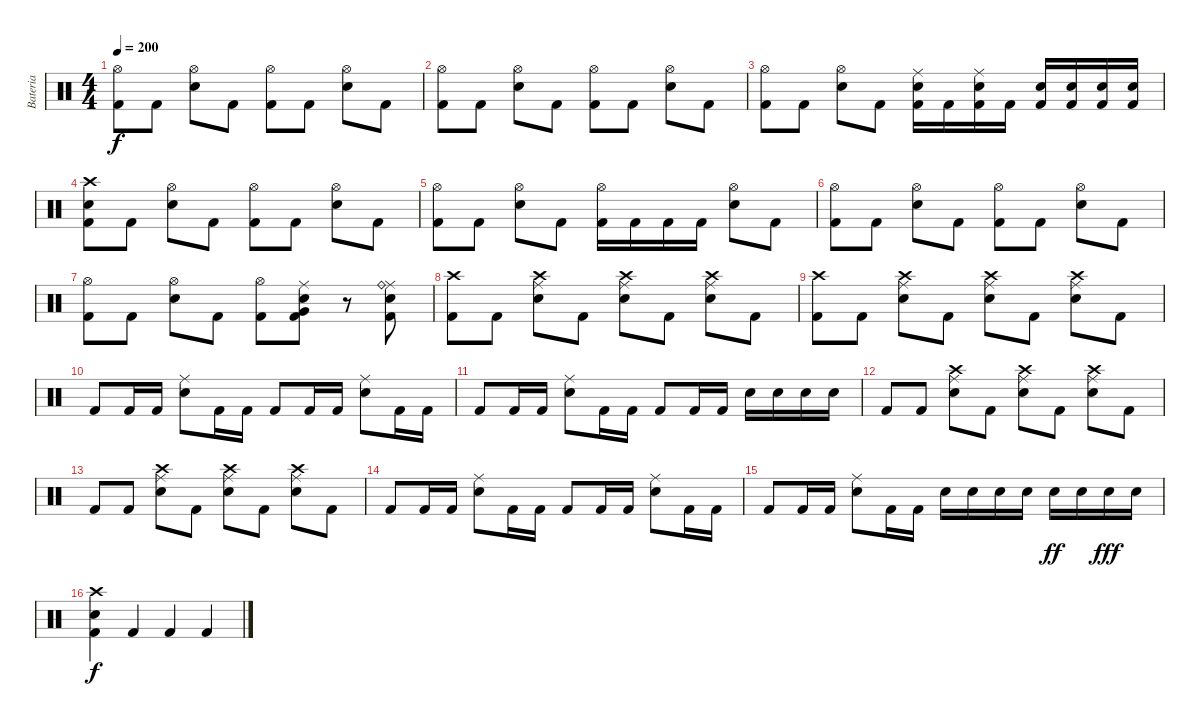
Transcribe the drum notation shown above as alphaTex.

\track ("Bateria" "Bateria") {instrument percussion}
\staff {score}
\articulation defaults
\ts (4 4)
\tempo 200
\clef neutral
\ks c
("Kick (hit) 2" "Hi-Hat (open)").8{dy f} "Kick (hit) 2".8 ("Electric Snare (hit)" "Hi-Hat (open)").8 "Kick (hit) 2".8 ("Kick (hit) 2" "Hi-Hat (open)").8 "Kick (hit) 2".8 ("Electric Snare (hit)" "Hi-Hat (open)").8 "Kick (hit) 2".8 |
("Kick (hit) 2" "Hi-Hat (open)").8 "Kick (hit) 2".8 ("Electric Snare (hit)" "Hi-Hat (open)").8 "Kick (hit) 2".8 ("Kick (hit) 2" "Hi-Hat (open)").8 "Kick (hit) 2".8 ("Electric Snare (hit)" "Hi-Hat (open)").8 "Kick (hit) 2".8 |
("Kick (hit) 2" "Hi-Hat (open)").8 "Kick (hit) 2".8 ("Electric Snare (hit)" "Hi-Hat (open)").8 "Kick (hit) 2".8 ("Kick (hit) 2" "Electric Snare (hit)" "Ride (middle)").16 "Kick (hit) 2".16 ("Kick (hit) 2" "Electric Snare (hit)" "Ride (middle)").16 "Kick (hit) 2".16 ("Kick (hit) 2" "Electric Snare (hit)").16 ("Kick (hit) 2" "Electric Snare (hit)").16 ("Kick (hit) 2" "Electric Snare (hit)").16 ("Kick (hit) 2" "Electric Snare (hit)").16 |
("Kick (hit) 2" "Electric Snare (hit)" "Crash high (hit)").8 "Kick (hit) 2".8 ("Electric Snare (hit)" "Hi-Hat (open)").8 "Kick (hit) 2".8 ("Kick (hit) 2" "Hi-Hat (open)").8 "Kick (hit) 2".8 ("Electric Snare (hit)" "Hi-Hat (open)").8 "Kick (hit) 2".8 |
("Kick (hit) 2" "Hi-Hat (open)").8 "Kick (hit) 2".8 ("Electric Snare (hit)" "Hi-Hat (open)").8 "Kick (hit) 2".8 ("Kick (hit) 2" "Hi-Hat (open)").16 "Kick (hit) 2".16 "Kick (hit) 2".16 "Kick (hit) 2".16 ("Electric Snare (hit)" "Hi-Hat (open)").8 "Kick (hit) 2".8 |
("Kick (hit) 2" "Hi-Hat (open)").8 "Kick (hit) 2".8 ("Electric Snare (hit)" "Hi-Hat (open)").8 "Kick (hit) 2".8 ("Kick (hit) 2" "Hi-Hat (open)").8 "Kick (hit) 2".8 ("Electric Snare (hit)" "Hi-Hat (open)").8 "Kick (hit) 2".8 |
("Kick (hit) 2" "Hi-Hat (open)").8 "Kick (hit) 2".8 ("Electric Snare (hit)" "Hi-Hat (open)").8 "Kick (hit) 2".8 ("Kick (hit) 2" "Hi-Hat (open)").8 ("Kick (hit) 2" "Electric Snare (hit)" "Ride (middle)" "Very Low Tom (hit)").8 r.8 ("Kick (hit) 2" "Electric Snare (hit)" "Ride (middle)" "Ride (bell)").8 |
("Kick (hit) 2" "Crash high (hit)").8 "Kick (hit) 2".8 ("Crash high (hit)" "Electric Snare (hit)" "Ride (middle)").8 "Kick (hit) 2".8 ("Crash high (hit)" "Electric Snare (hit)" "Ride (middle)").8 "Kick (hit) 2".8 ("Crash high (hit)" "Electric Snare (hit)" "Ride (middle)").8 "Kick (hit) 2".8 |
("Kick (hit) 2" "Crash high (hit)").8 "Kick (hit) 2".8 ("Crash high (hit)" "Electric Snare (hit)" "Ride (middle)").8 "Kick (hit) 2".8 ("Crash high (hit)" "Electric Snare (hit)" "Ride (middle)").8 "Kick (hit) 2".8 ("Crash high (hit)" "Electric Snare (hit)" "Ride (middle)").8 "Kick (hit) 2".8 |
"Kick (hit) 2".8 "Kick (hit) 2".16 "Kick (hit) 2".16 ("Electric Snare (hit)" "Ride (middle)").8 "Kick (hit) 2".16 "Kick (hit) 2".16 "Kick (hit) 2".8 "Kick (hit) 2".16 "Kick (hit) 2".16 ("Electric Snare (hit)" "Ride (middle)").8 "Kick (hit) 2".16 "Kick (hit) 2".16 |
"Kick (hit) 2".8 "Kick (hit) 2".16 "Kick (hit) 2".16 ("Electric Snare (hit)" "Ride (middle)").8 "Kick (hit) 2".16 "Kick (hit) 2".16 "Kick (hit) 2".8 "Kick (hit) 2".16 "Kick (hit) 2".16 "Electric Snare (hit)".16 "Electric Snare (hit)".16 "Electric Snare (hit)".16 "Electric Snare (hit)".16 |
"Kick (hit) 2".8 "Kick (hit) 2".8 ("Crash high (hit)" "Electric Snare (hit)" "Ride (middle)").8 "Kick (hit) 2".8 ("Crash high (hit)" "Electric Snare (hit)" "Ride (middle)").8 "Kick (hit) 2".8 ("Crash high (hit)" "Electric Snare (hit)" "Ride (middle)").8 "Kick (hit) 2".8 |
"Kick (hit) 2".8 "Kick (hit) 2".8 ("Crash high (hit)" "Electric Snare (hit)" "Ride (middle)").8 "Kick (hit) 2".8 ("Crash high (hit)" "Electric Snare (hit)" "Ride (middle)").8 "Kick (hit) 2".8 ("Crash high (hit)" "Electric Snare (hit)" "Ride (middle)").8 "Kick (hit) 2".8 |
"Kick (hit) 2".8 "Kick (hit) 2".16 "Kick (hit) 2".16 ("Electric Snare (hit)" "Ride (middle)").8 "Kick (hit) 2".16 "Kick (hit) 2".16 "Kick (hit) 2".8 "Kick (hit) 2".16 "Kick (hit) 2".16 ("Electric Snare (hit)" "Ride (middle)").8 "Kick (hit) 2".16 "Kick (hit) 2".16 |
"Kick (hit) 2".8 "Kick (hit) 2".16 "Kick (hit) 2".16 ("Electric Snare (hit)" "Ride (middle)").8 "Kick (hit) 2".16 "Kick (hit) 2".16 "Electric Snare (hit)".16 "Electric Snare (hit)".16 "Electric Snare (hit)".16 "Electric Snare (hit)".16 "Electric Snare (hit)".16{dy ff} "Electric Snare (hit)".16 "Electric Snare (hit)".16{dy fff} "Electric Snare (hit)".16 |
("Kick (hit) 2" "Electric Snare (hit)" "Crash high (hit)").4{dy f} "Kick (hit) 2".4 "Kick (hit) 2".4 "Kick (hit) 2".4
